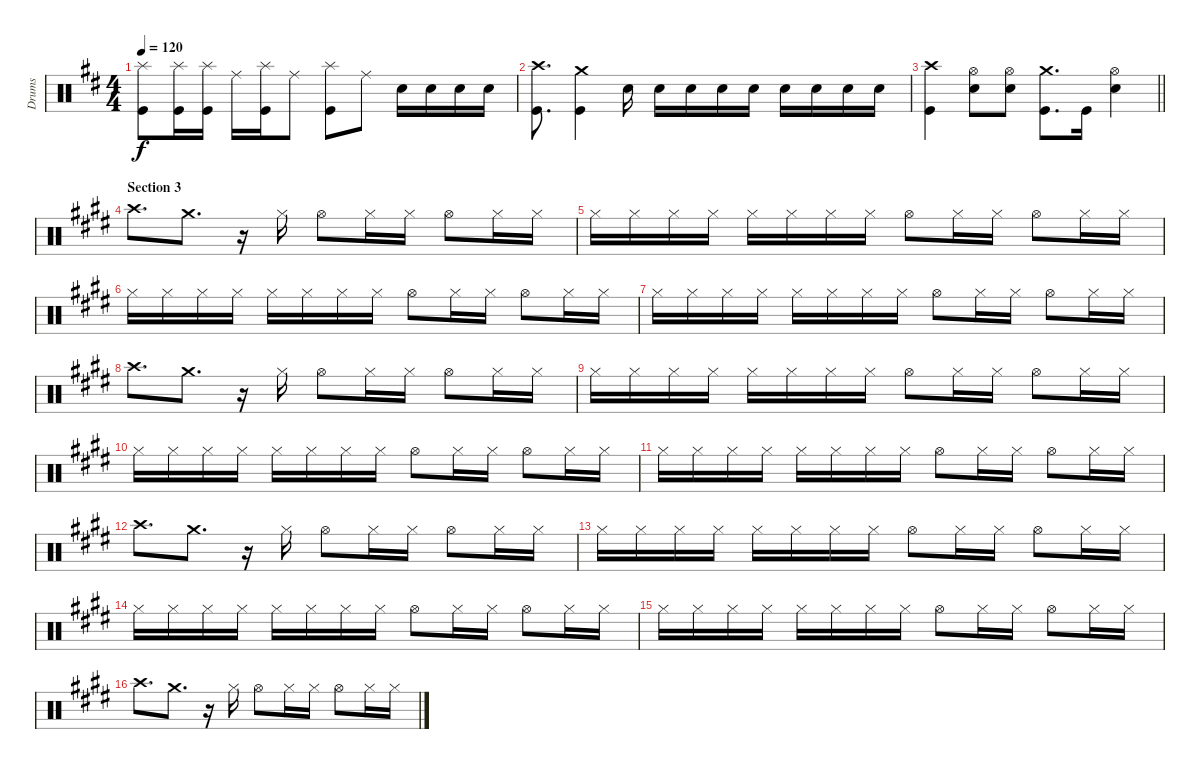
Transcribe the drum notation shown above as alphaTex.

\track ("Drums" "Drums") {instrument percussion}
\staff {score}
\articulation defaults
\ts (4 4)
\tempo 120
\clef neutral
\ks d
("Splash (hit)" "Kick (hit)").8{dy f} ("Splash (hit)" "Kick (hit)").16 ("Splash (hit)" "Kick (hit)").16 "Ride (middle)".16 ("Splash (hit)" "Kick (hit)").16 "Ride (middle)".8 ("Splash (hit)" "Kick (hit)").8 "Ride (middle)".8 "Snare (hit) 2".16 "Snare (hit) 2".16 "Snare (hit) 2".16 "Snare (hit) 2".16 |
("Crash high (hit)" "Kick (hit)").8{d} ("Crash medium (hit)" "Kick (hit)").4 "Snare (hit) 2".16 "Snare (hit) 2".16 "Snare (hit) 2".16 "Snare (hit) 2".16 "Snare (hit) 2".16 "Snare (hit) 2".16 "Snare (hit) 2".16 "Snare (hit) 2".16 "Snare (hit) 2".16 |
\barLineRight lightlight
("Crash high (hit)" "Kick (hit)").4 ("Hi-Hat (open)" "Snare (hit) 2").8 ("Hi-Hat (open)" "Snare (hit) 2").8 ("Crash medium (hit)" "Kick (hit)").8{d} "Kick (hit)".16 ("Hi-Hat (open)" "Snare (hit) 2").4 |
\section ("" "Section 3")
\ks e "Crash high (hit)".8{d} "Crash medium (hit)".8{d}
r.16 "Hi-Hat (closed)".16 "Hi-Hat (open)".8 "Hi-Hat (closed)".16 "Hi-Hat (closed)".16 "Hi-Hat (open)".8 "Hi-Hat (closed)".16 "Hi-Hat (closed)".16 |
"Hi-Hat (closed)".16 "Hi-Hat (closed)".16 "Hi-Hat (closed)".16 "Hi-Hat (closed)".16 "Hi-Hat (closed)".16 "Hi-Hat (closed)".16 "Hi-Hat (closed)".16 "Hi-Hat (closed)".16 "Hi-Hat (open)".8 "Hi-Hat (closed)".16 "Hi-Hat (closed)".16 "Hi-Hat (open)".8 "Hi-Hat (closed)".16 "Hi-Hat (closed)".16 |
"Hi-Hat (closed)".16 "Hi-Hat (closed)".16 "Hi-Hat (closed)".16 "Hi-Hat (closed)".16 "Hi-Hat (closed)".16 "Hi-Hat (closed)".16 "Hi-Hat (closed)".16 "Hi-Hat (closed)".16 "Hi-Hat (open)".8 "Hi-Hat (closed)".16 "Hi-Hat (closed)".16 "Hi-Hat (open)".8 "Hi-Hat (closed)".16 "Hi-Hat (closed)".16 |
"Hi-Hat (closed)".16 "Hi-Hat (closed)".16 "Hi-Hat (closed)".16 "Hi-Hat (closed)".16 "Hi-Hat (closed)".16 "Hi-Hat (closed)".16 "Hi-Hat (closed)".16 "Hi-Hat (closed)".16 "Hi-Hat (open)".8 "Hi-Hat (closed)".16 "Hi-Hat (closed)".16 "Hi-Hat (open)".8 "Hi-Hat (closed)".16 "Hi-Hat (closed)".16 |
"Crash high (hit)".8{d} "Crash medium (hit)".8{d} r.16 "Hi-Hat (closed)".16 "Hi-Hat (open)".8 "Hi-Hat (closed)".16 "Hi-Hat (closed)".16 "Hi-Hat (open)".8 "Hi-Hat (closed)".16 "Hi-Hat (closed)".16 |
"Hi-Hat (closed)".16 "Hi-Hat (closed)".16 "Hi-Hat (closed)".16 "Hi-Hat (closed)".16 "Hi-Hat (closed)".16 "Hi-Hat (closed)".16 "Hi-Hat (closed)".16 "Hi-Hat (closed)".16 "Hi-Hat (open)".8 "Hi-Hat (closed)".16 "Hi-Hat (closed)".16 "Hi-Hat (open)".8 "Hi-Hat (closed)".16 "Hi-Hat (closed)".16 |
"Hi-Hat (closed)".16 "Hi-Hat (closed)".16 "Hi-Hat (closed)".16 "Hi-Hat (closed)".16 "Hi-Hat (closed)".16 "Hi-Hat (closed)".16 "Hi-Hat (closed)".16 "Hi-Hat (closed)".16 "Hi-Hat (open)".8 "Hi-Hat (closed)".16 "Hi-Hat (closed)".16 "Hi-Hat (open)".8 "Hi-Hat (closed)".16 "Hi-Hat (closed)".16 |
"Hi-Hat (closed)".16 "Hi-Hat (closed)".16 "Hi-Hat (closed)".16 "Hi-Hat (closed)".16 "Hi-Hat (closed)".16 "Hi-Hat (closed)".16 "Hi-Hat (closed)".16 "Hi-Hat (closed)".16 "Hi-Hat (open)".8 "Hi-Hat (closed)".16 "Hi-Hat (closed)".16 "Hi-Hat (open)".8 "Hi-Hat (closed)".16 "Hi-Hat (closed)".16 |
"Crash high (hit)".8{d} "Crash medium (hit)".8{d} r.16 "Hi-Hat (closed)".16 "Hi-Hat (open)".8 "Hi-Hat (closed)".16 "Hi-Hat (closed)".16 "Hi-Hat (open)".8 "Hi-Hat (closed)".16 "Hi-Hat (closed)".16 |
"Hi-Hat (closed)".16 "Hi-Hat (closed)".16 "Hi-Hat (closed)".16 "Hi-Hat (closed)".16 "Hi-Hat (closed)".16 "Hi-Hat (closed)".16 "Hi-Hat (closed)".16 "Hi-Hat (closed)".16 "Hi-Hat (open)".8 "Hi-Hat (closed)".16 "Hi-Hat (closed)".16 "Hi-Hat (open)".8 "Hi-Hat (closed)".16 "Hi-Hat (closed)".16 |
"Hi-Hat (closed)".16 "Hi-Hat (closed)".16 "Hi-Hat (closed)".16 "Hi-Hat (closed)".16 "Hi-Hat (closed)".16 "Hi-Hat (closed)".16 "Hi-Hat (closed)".16 "Hi-Hat (closed)".16 "Hi-Hat (open)".8 "Hi-Hat (closed)".16 "Hi-Hat (closed)".16 "Hi-Hat (open)".8 "Hi-Hat (closed)".16 "Hi-Hat (closed)".16 |
"Hi-Hat (closed)".16 "Hi-Hat (closed)".16 "Hi-Hat (closed)".16 "Hi-Hat (closed)".16 "Hi-Hat (closed)".16 "Hi-Hat (closed)".16 "Hi-Hat (closed)".16 "Hi-Hat (closed)".16 "Hi-Hat (open)".8 "Hi-Hat (closed)".16 "Hi-Hat (closed)".16 "Hi-Hat (open)".8 "Hi-Hat (closed)".16 "Hi-Hat (closed)".16 |
"Crash high (hit)".8{d} "Crash medium (hit)".8{d} r.16 "Hi-Hat (closed)".16 "Hi-Hat (open)".8 "Hi-Hat (closed)".16 "Hi-Hat (closed)".16 "Hi-Hat (open)".8 "Hi-Hat (closed)".16 "Hi-Hat (closed)".16
